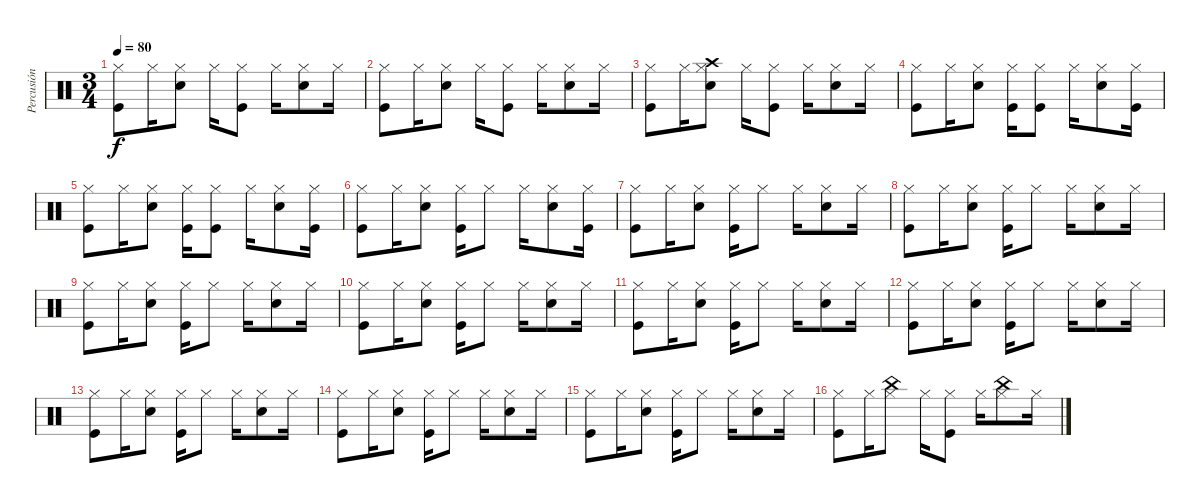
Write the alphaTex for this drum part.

\track ("Percusión" "Percusión") {instrument percussion}
\staff {score}
\articulation defaults
\ts (3 4)
\tempo 80
\clef neutral
\ks c
("Hi-Hat (closed)" "Kick (hit)").8{dy f} "Hi-Hat (closed)".16 ("Hi-Hat (closed)" "Snare (hit) 2").8 "Hi-Hat (closed)".16 ("Hi-Hat (closed)" "Kick (hit)").8 "Hi-Hat (closed)".16 ("Hi-Hat (closed)" "Snare (hit) 2").8 "Hi-Hat (closed)".16 |
("Hi-Hat (closed)" "Kick (hit)").8 "Hi-Hat (closed)".16 ("Hi-Hat (closed)" "Snare (hit) 2").8 "Hi-Hat (closed)".16 ("Hi-Hat (closed)" "Kick (hit)").8 "Hi-Hat (closed)".16 ("Hi-Hat (closed)" "Snare (hit) 2").8 "Hi-Hat (closed)".16 |
("Hi-Hat (closed)" "Kick (hit)").8 "Hi-Hat (closed)".16 ("Hi-Hat (closed)" "Snare (hit) 2" "Crash high (hit)").8 "Hi-Hat (closed)".16 ("Hi-Hat (closed)" "Kick (hit)").8 "Hi-Hat (closed)".16 ("Hi-Hat (closed)" "Snare (hit) 2").8 "Hi-Hat (closed)".16 |
("Hi-Hat (closed)" "Kick (hit)").8 "Hi-Hat (closed)".16 ("Hi-Hat (closed)" "Snare (hit) 2").8 ("Hi-Hat (closed)" "Kick (hit)").16 ("Hi-Hat (closed)" "Kick (hit)").8 "Hi-Hat (closed)".16 ("Hi-Hat (closed)" "Snare (hit) 2").8 ("Hi-Hat (closed)" "Kick (hit)").16 |
("Hi-Hat (closed)" "Kick (hit)").8 "Hi-Hat (closed)".16 ("Hi-Hat (closed)" "Snare (hit) 2").8 ("Hi-Hat (closed)" "Kick (hit)").16 ("Hi-Hat (closed)" "Kick (hit)").8 "Hi-Hat (closed)".16 ("Hi-Hat (closed)" "Snare (hit) 2").8 ("Hi-Hat (closed)" "Kick (hit)").16 |
("Hi-Hat (closed)" "Kick (hit)").8 "Hi-Hat (closed)".16 ("Hi-Hat (closed)" "Snare (hit) 2").8 ("Hi-Hat (closed)" "Kick (hit)").16 "Hi-Hat (closed)".8 "Hi-Hat (closed)".16 ("Hi-Hat (closed)" "Snare (hit) 2").8 ("Hi-Hat (closed)" "Kick (hit)").16 |
("Hi-Hat (closed)" "Kick (hit)").8 "Hi-Hat (closed)".16 ("Hi-Hat (closed)" "Snare (hit) 2").8 ("Hi-Hat (closed)" "Kick (hit)").16 "Hi-Hat (closed)".8 "Hi-Hat (closed)".16 ("Hi-Hat (closed)" "Snare (hit) 2").8 "Hi-Hat (closed)".16 |
("Hi-Hat (closed)" "Kick (hit)").8 "Hi-Hat (closed)".16 ("Hi-Hat (closed)" "Snare (hit) 2").8 ("Hi-Hat (closed)" "Kick (hit)").16 "Hi-Hat (closed)".8 "Hi-Hat (closed)".16 ("Hi-Hat (closed)" "Snare (hit) 2").8 "Hi-Hat (closed)".16 |
("Hi-Hat (closed)" "Kick (hit)").8 "Hi-Hat (closed)".16 ("Hi-Hat (closed)" "Snare (hit) 2").8 ("Hi-Hat (closed)" "Kick (hit)").16 "Hi-Hat (closed)".8 "Hi-Hat (closed)".16 ("Hi-Hat (closed)" "Snare (hit) 2").8 "Hi-Hat (closed)".16 |
("Hi-Hat (closed)" "Kick (hit)").8 "Hi-Hat (closed)".16 ("Hi-Hat (closed)" "Snare (hit) 2").8 ("Hi-Hat (closed)" "Kick (hit)").16 "Hi-Hat (closed)".8 "Hi-Hat (closed)".16 ("Hi-Hat (closed)" "Snare (hit) 2").8 "Hi-Hat (closed)".16 |
("Hi-Hat (closed)" "Kick (hit)").8 "Hi-Hat (closed)".16 ("Hi-Hat (closed)" "Snare (hit) 2").8 ("Hi-Hat (closed)" "Kick (hit)").16 "Hi-Hat (closed)".8 "Hi-Hat (closed)".16 ("Hi-Hat (closed)" "Snare (hit) 2").8 "Hi-Hat (closed)".16 |
("Hi-Hat (closed)" "Kick (hit)").8 "Hi-Hat (closed)".16 ("Hi-Hat (closed)" "Snare (hit) 2").8 ("Hi-Hat (closed)" "Kick (hit)").16 "Hi-Hat (closed)".8 "Hi-Hat (closed)".16 ("Hi-Hat (closed)" "Snare (hit) 2").8 "Hi-Hat (closed)".16 |
("Hi-Hat (closed)" "Kick (hit)").8 "Hi-Hat (closed)".16 ("Hi-Hat (closed)" "Snare (hit) 2").8 ("Hi-Hat (closed)" "Kick (hit)").16 "Hi-Hat (closed)".8 "Hi-Hat (closed)".16 ("Hi-Hat (closed)" "Snare (hit) 2").8 "Hi-Hat (closed)".16 |
("Hi-Hat (closed)" "Kick (hit)").8 "Hi-Hat (closed)".16 ("Hi-Hat (closed)" "Snare (hit) 2").8 ("Hi-Hat (closed)" "Kick (hit)").16 "Hi-Hat (closed)".8 "Hi-Hat (closed)".16 ("Hi-Hat (closed)" "Snare (hit) 2").8 "Hi-Hat (closed)".16 |
("Hi-Hat (closed)" "Kick (hit)").8 "Hi-Hat (closed)".16 ("Hi-Hat (closed)" "Snare (hit) 2").8 ("Hi-Hat (closed)" "Kick (hit)").16 "Hi-Hat (closed)".8 "Hi-Hat (closed)".16 ("Hi-Hat (closed)" "Snare (hit) 2").8 "Hi-Hat (closed)".16 |
("Hi-Hat (closed)" "Kick (hit)").8 "Hi-Hat (closed)".16 ("Hi-Hat (closed)" "China (hit)").8 "Hi-Hat (closed)".16 ("Hi-Hat (closed)" "Kick (hit)").8 "Hi-Hat (closed)".16 ("Hi-Hat (closed)" "China (hit)").8 "Hi-Hat (closed)".16
